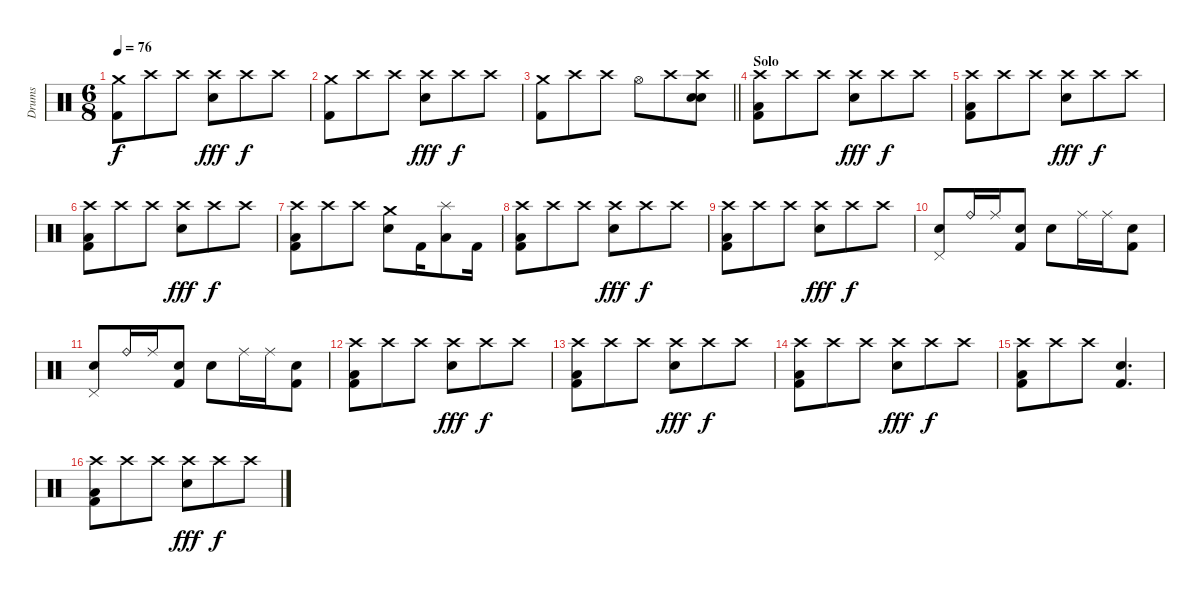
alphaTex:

\track ("Drums" "Drums") {instrument percussion}
\staff {score}
\articulation defaults
\ts (6 8)
\tempo 76
\clef neutral
\ks c
("Crash medium (hit)" "Kick (hit) 2").8{dy f} "Crash high (hit)".8 "Crash high (hit)".8 ("Crash high (hit)" "Snare (hit) 2").8{dy fff} "Crash high (hit)".8{dy f} "Crash high (hit)".8 |
("Crash medium (hit)" "Kick (hit) 2").8 "Crash high (hit)".8 "Crash high (hit)".8 ("Crash high (hit)" "Snare (hit) 2").8{dy fff} "Crash high (hit)".8{dy f} "Crash high (hit)".8 |
\barLineRight lightlight
("Crash medium (hit)" "Kick (hit) 2").8 "Crash high (hit)".8 "Crash high (hit)".8 "Hi-Hat (open)".8 "Crash high (hit)".8 ("Crash high (hit)" "Snare (hit) 2" "Snare (hit) 2").8 |
\section ("" "Solo")
("Crash high (hit)" "Low Floor Tom (hit)" "Kick (hit) 2").8 "Crash high (hit)".8 "Crash high (hit)".8 ("Crash high (hit)" "Snare (hit) 2").8{dy fff} "Crash high (hit)".8{dy f} "Crash high (hit)".8 |
("Crash high (hit)" "Low Floor Tom (hit)" "Kick (hit) 2").8 "Crash high (hit)".8 "Crash high (hit)".8 ("Crash high (hit)" "Snare (hit) 2").8{dy fff} "Crash high (hit)".8{dy f} "Crash high (hit)".8 |
("Crash high (hit)" "Low Floor Tom (hit)" "Kick (hit) 2").8 "Crash high (hit)".8 "Crash high (hit)".8 ("Crash high (hit)" "Snare (hit) 2").8{dy fff} "Crash high (hit)".8{dy f} "Crash high (hit)".8 |
("Crash high (hit)" "Low Floor Tom (hit)" "Kick (hit) 2").8 "Crash high (hit)".8 "Crash high (hit)".8 ("Crash medium (hit)" "Snare (hit) 2").8 "Kick (hit) 2".16 ("Splash (hit)" "Low Tom (hit)").8 "Kick (hit) 2".16 |
("Crash high (hit)" "Low Floor Tom (hit)" "Kick (hit) 2").8 "Crash high (hit)".8 "Crash high (hit)".8 ("Crash high (hit)" "Snare (hit) 2").8{dy fff} "Crash high (hit)".8{dy f} "Crash high (hit)".8 |
("Crash high (hit)" "Low Floor Tom (hit)" "Kick (hit) 2").8 "Crash high (hit)".8 "Crash high (hit)".8 ("Crash high (hit)" "Snare (hit) 2").8{dy fff} "Crash high (hit)".8{dy f} "Crash high (hit)".8 |
("Pedal Hi-Hat (hit)" "Snare (hit) 2").8 "Ride (bell)".16 "Ride (middle)".16 ("Snare (hit) 2" "Kick (hit) 2").8 "Snare (hit) 2".8 "Ride (middle)".16 "Ride (middle)".16 ("Snare (hit) 2" "Kick (hit) 2").8 |
("Pedal Hi-Hat (hit)" "Snare (hit) 2").8 "Ride (bell)".16 "Ride (middle)".16 ("Snare (hit) 2" "Kick (hit) 2").8 "Snare (hit) 2".8 "Ride (middle)".16 "Ride (middle)".16 ("Snare (hit) 2" "Kick (hit) 2").8 |
("Crash high (hit)" "Low Floor Tom (hit)" "Kick (hit) 2").8 "Crash high (hit)".8 "Crash high (hit)".8 ("Crash high (hit)" "Snare (hit) 2").8{dy fff} "Crash high (hit)".8{dy f} "Crash high (hit)".8 |
("Crash high (hit)" "Low Floor Tom (hit)" "Kick (hit) 2").8 "Crash high (hit)".8 "Crash high (hit)".8 ("Crash high (hit)" "Snare (hit) 2").8{dy fff} "Crash high (hit)".8{dy f} "Crash high (hit)".8 |
("Crash high (hit)" "Low Floor Tom (hit)" "Kick (hit) 2").8 "Crash high (hit)".8 "Crash high (hit)".8 ("Crash high (hit)" "Snare (hit) 2").8{dy fff} "Crash high (hit)".8{dy f} "Crash high (hit)".8 |
("Crash high (hit)" "Low Floor Tom (hit)" "Kick (hit) 2").8 "Crash high (hit)".8 "Crash high (hit)".8 ("Snare (hit) 2" "Kick (hit) 2").4{d} |
("Crash high (hit)" "Low Floor Tom (hit)" "Kick (hit) 2").8 "Crash high (hit)".8 "Crash high (hit)".8 ("Crash high (hit)" "Snare (hit) 2").8{dy fff} "Crash high (hit)".8{dy f} "Crash high (hit)".8
